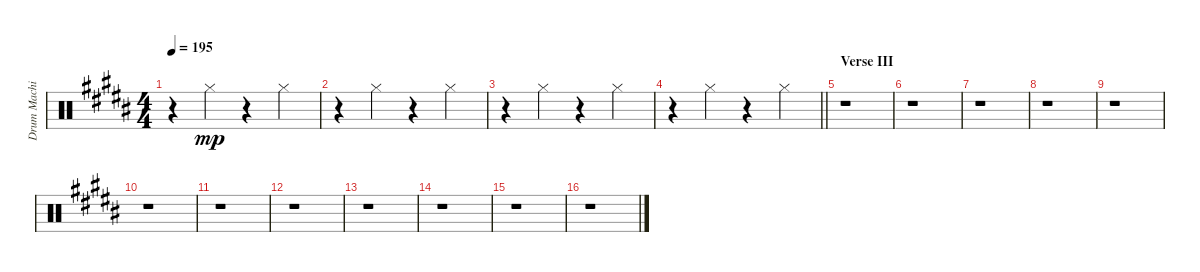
\track ("Drum Machine" "Drum Machi") {instrument percussion}
\staff {score}
\articulation defaults
\ts (4 4)
\tempo 195
\clef neutral
\ks b
r.4{dy mp} "Hi-Hat (closed)".4 r.4 "Hi-Hat (closed)".4 |
r.4 "Hi-Hat (closed)".4 r.4 "Hi-Hat (closed)".4 |
r.4 "Hi-Hat (closed)".4 r.4 "Hi-Hat (closed)".4 |
\barLineRight lightlight
r.4 "Hi-Hat (closed)".4 r.4 "Hi-Hat (closed)".4 |
\section ("" "Verse III")
r.1 |
r.1 |
r.1 |
r.1 |
r.1 |
r.1 |
r.1 |
r.1 |
r.1 |
r.1 |
r.1 |
r.1
